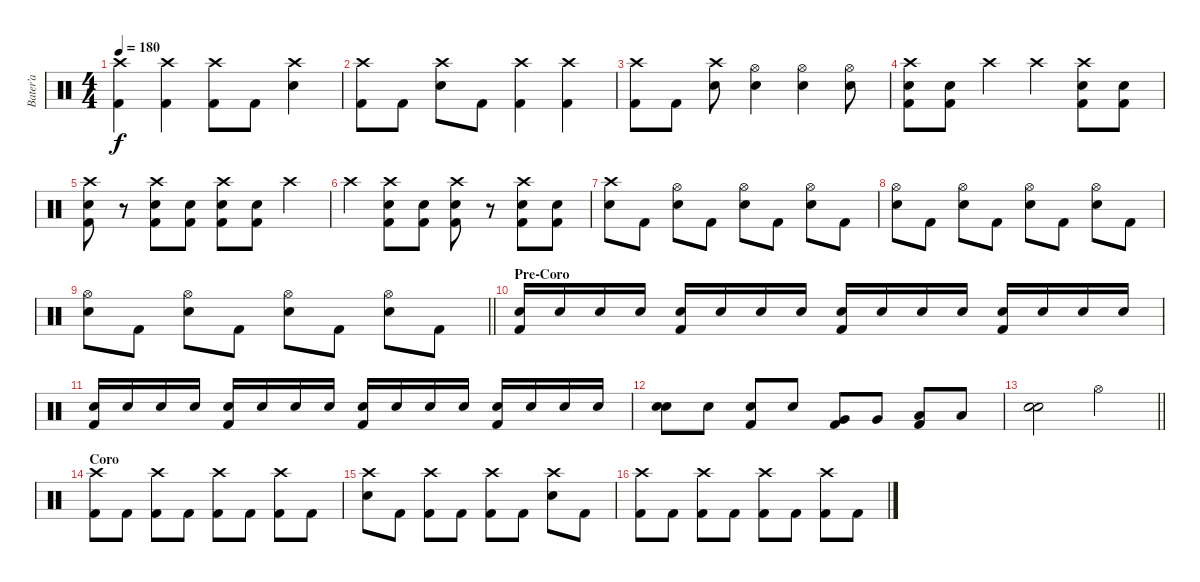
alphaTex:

\track ("Bater’a" "Bater’a") {instrument percussion bank 211}
\staff {score}
\articulation defaults
\ts (4 4)
\tempo 180
\clef neutral
\ks c
("Crash high (hit)" "Kick (hit) 2").4{dy f} ("Crash high (hit)" "Kick (hit) 2").4 ("Crash high (hit)" "Kick (hit) 2").8 "Kick (hit) 2".8 ("Crash high (hit)" "Electric Snare (hit)").4 |
("Crash high (hit)" "Kick (hit) 2").8 "Kick (hit) 2".8 ("Crash high (hit)" "Electric Snare (hit)").8 "Kick (hit) 2".8 ("Crash high (hit)" "Kick (hit) 2").4 ("Crash high (hit)" "Kick (hit) 2").4 |
("Crash high (hit)" "Kick (hit) 2").8 "Kick (hit) 2".8 ("Crash high (hit)" "Electric Snare (hit)").8 ("Hi-Hat (open)" "Electric Snare (hit)").4 ("Hi-Hat (open)" "Electric Snare (hit)").4 ("Hi-Hat (open)" "Electric Snare (hit)").8 |
("Crash high (hit)" "Electric Snare (hit)" "Kick (hit) 2").8 ("Electric Snare (hit)" "Kick (hit) 2").8 "Crash high (hit)".4 "Crash high (hit)".4 ("Crash high (hit)" "Electric Snare (hit)" "Kick (hit) 2").8 ("Electric Snare (hit)" "Kick (hit) 2").8 |
("Crash high (hit)" "Electric Snare (hit)" "Kick (hit) 2").8 r.8 ("Crash high (hit)" "Electric Snare (hit)" "Kick (hit) 2").8 ("Electric Snare (hit)" "Kick (hit) 2").8 ("Crash high (hit)" "Electric Snare (hit)" "Kick (hit) 2").8 ("Electric Snare (hit)" "Kick (hit) 2").8 "Crash high (hit)".4 |
"Crash high (hit)".4 ("Crash high (hit)" "Electric Snare (hit)" "Kick (hit) 2").8 ("Electric Snare (hit)" "Kick (hit) 2").8 ("Crash high (hit)" "Electric Snare (hit)" "Kick (hit) 2").8 r.8 ("Crash high (hit)" "Electric Snare (hit)" "Kick (hit) 2").8 ("Electric Snare (hit)" "Kick (hit) 2").8 |
("Crash high (hit)" "Electric Snare (hit)").8 "Kick (hit) 2".8 ("Hi-Hat (open)" "Electric Snare (hit)").8 "Kick (hit) 2".8 ("Hi-Hat (open)" "Electric Snare (hit)").8 "Kick (hit) 2".8 ("Hi-Hat (open)" "Electric Snare (hit)").8 "Kick (hit) 2".8 |
("Hi-Hat (open)" "Electric Snare (hit)").8 "Kick (hit) 2".8 ("Hi-Hat (open)" "Electric Snare (hit)").8 "Kick (hit) 2".8 ("Hi-Hat (open)" "Electric Snare (hit)").8 "Kick (hit) 2".8 ("Hi-Hat (open)" "Electric Snare (hit)").8 "Kick (hit) 2".8 |
\barLineRight lightlight
("Hi-Hat (open)" "Electric Snare (hit)").8 "Kick (hit) 2".8 ("Hi-Hat (open)" "Electric Snare (hit)").8 "Kick (hit) 2".8 ("Hi-Hat (open)" "Electric Snare (hit)").8 "Kick (hit) 2".8 ("Hi-Hat (open)" "Electric Snare (hit)").8 "Kick (hit) 2".8 |
\section ("" "Pre-Coro")
("Electric Snare (hit)" "Kick (hit) 2").16 "Electric Snare (hit)".16 "Electric Snare (hit)".16 "Electric Snare (hit)".16 ("Electric Snare (hit)" "Kick (hit) 2").16 "Electric Snare (hit)".16 "Electric Snare (hit)".16 "Electric Snare (hit)".16 ("Electric Snare (hit)" "Kick (hit) 2").16 "Electric Snare (hit)".16 "Electric Snare (hit)".16 "Electric Snare (hit)".16 ("Electric Snare (hit)" "Kick (hit) 2").16 "Electric Snare (hit)".16 "Electric Snare (hit)".16 "Electric Snare (hit)".16 |
("Electric Snare (hit)" "Kick (hit) 2").16 "Electric Snare (hit)".16 "Electric Snare (hit)".16 "Electric Snare (hit)".16 ("Electric Snare (hit)" "Kick (hit) 2").16 "Electric Snare (hit)".16 "Electric Snare (hit)".16 "Electric Snare (hit)".16 ("Electric Snare (hit)" "Kick (hit) 2").16 "Electric Snare (hit)".16 "Electric Snare (hit)".16 "Electric Snare (hit)".16 ("Electric Snare (hit)" "Kick (hit) 2").16 "Electric Snare (hit)".16 "Electric Snare (hit)".16 "Electric Snare (hit)".16 |
("Electric Snare (hit)" "Snare (hit)").8 "Electric Snare (hit)".8 ("Electric Snare (hit)" "Kick (hit) 2").8 "Electric Snare (hit)".8 ("Very Low Tom (hit)" "Kick (hit) 2").8 "Very Low Tom (hit)".8 ("Low Floor Tom (hit)" "Kick (hit) 2").8 "Low Floor Tom (hit)".8 |
\barLineRight lightlight
("Electric Snare (hit)" "Electric Snare (hit)").2 "Hi-Hat (open)".2 |
\section ("" "Coro")
("Crash high (hit)" "Kick (hit) 2").8 "Kick (hit) 2".8 ("Crash high (hit)" "Kick (hit) 2").8 "Kick (hit) 2".8 ("Crash high (hit)" "Kick (hit) 2").8 "Kick (hit) 2".8 ("Crash high (hit)" "Kick (hit) 2").8 "Kick (hit) 2".8 |
("Crash high (hit)" "Electric Snare (hit)").8 "Kick (hit) 2".8 ("Crash high (hit)" "Kick (hit) 2").8 "Kick (hit) 2".8 ("Crash high (hit)" "Kick (hit) 2").8 "Kick (hit) 2".8 ("Crash high (hit)" "Electric Snare (hit)").8 "Kick (hit) 2".8 |
("Crash high (hit)" "Kick (hit) 2").8 "Kick (hit) 2".8 ("Crash high (hit)" "Kick (hit) 2").8 "Kick (hit) 2".8 ("Crash high (hit)" "Kick (hit) 2").8 "Kick (hit) 2".8 ("Crash high (hit)" "Kick (hit) 2").8 "Kick (hit) 2".8
